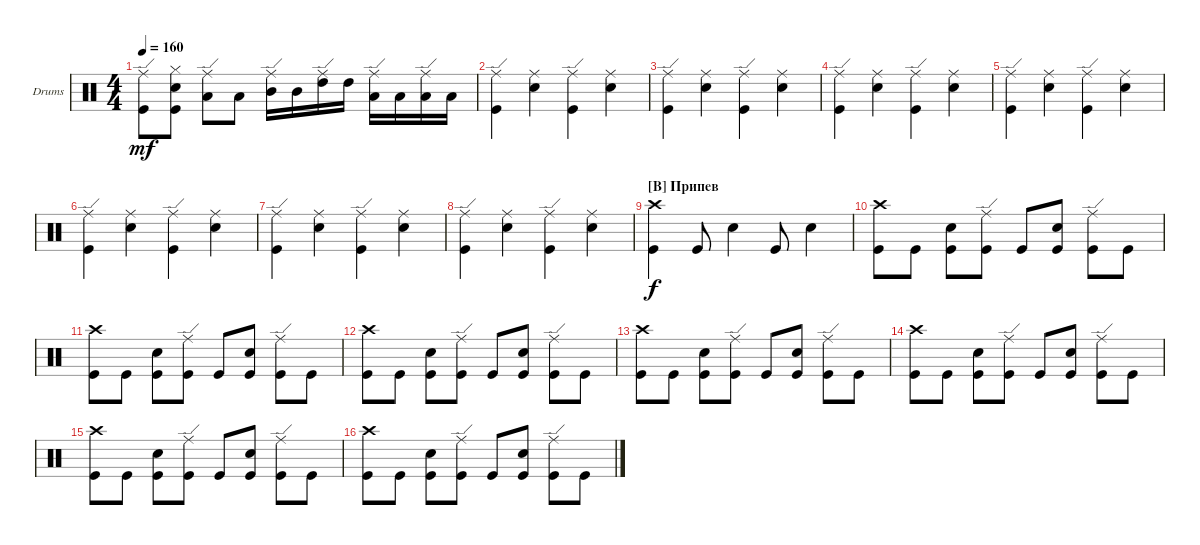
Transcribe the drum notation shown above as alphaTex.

\defaultSystemsLayout 4
\bracketExtendMode groupsimilarinstruments
\firstSystemTrackNameOrientation horizontal
\otherSystemsTrackNameOrientation horizontal
\track ("Drumkit" "Drums") {instrument percussion}
\staff {score}
\articulation defaults
\ts (4 4)
\tempo 160
\clef neutral
\ks c
("Kick (hit)" "Ride (edge)").8{dy mf} ("Kick (hit)" "Snare (hit) 2" "Hi-Hat (closed)").8 ("Low Tom (hit)" "Ride (edge)").8 "Low Tom (hit)".8 ("Mid Tom (hit)" "Ride (edge)").16 "Mid Tom (hit)".16 ("High Tom (hit)" "Ride (edge)").16 "High Tom (hit)".16 ("Low Tom (hit)" "Ride (edge)").16 "Low Tom (hit)".16 ("Low Tom (hit)" "Ride (edge)").16 "Low Tom (hit)".16 |
("Kick (hit)" "Ride (edge)").4 ("Snare (hit) 2" "Ride (middle)").4 ("Kick (hit)" "Ride (edge)").4 ("Snare (hit) 2" "Ride (middle)").4 |
("Kick (hit)" "Ride (edge)").4 ("Snare (hit) 2" "Ride (middle)").4 ("Kick (hit)" "Ride (edge)").4 ("Snare (hit) 2" "Ride (middle)").4 |
("Kick (hit)" "Ride (edge)").4 ("Snare (hit) 2" "Ride (middle)").4 ("Kick (hit)" "Ride (edge)").4 ("Snare (hit) 2" "Ride (middle)").4 |
("Kick (hit)" "Ride (edge)").4 ("Snare (hit) 2" "Ride (middle)").4 ("Kick (hit)" "Ride (edge)").4 ("Snare (hit) 2" "Ride (middle)").4 |
("Kick (hit)" "Ride (edge)").4 ("Snare (hit) 2" "Ride (middle)").4 ("Kick (hit)" "Ride (edge)").4 ("Snare (hit) 2" "Ride (middle)").4 |
("Kick (hit)" "Ride (edge)").4 ("Snare (hit) 2" "Ride (middle)").4 ("Kick (hit)" "Ride (edge)").4 ("Snare (hit) 2" "Ride (middle)").4 |
("Kick (hit)" "Ride (edge)").4 ("Snare (hit) 2" "Ride (middle)").4 ("Kick (hit)" "Ride (edge)").4 ("Snare (hit) 2" "Ride (middle)").4 |
\section ("B" "Припев")
("Kick (hit)" "Crash high (hit)").4{dy f} "Kick (hit)".8 "Snare (hit) 2".4 "Kick (hit)".8 "Snare (hit) 2".4 |
("Kick (hit)" "Crash high (hit)").8 "Kick (hit)".8 ("Kick (hit)" "Snare (hit) 2").8 ("Kick (hit)" "Ride (edge)").8 "Kick (hit)".8 ("Kick (hit)" "Snare (hit) 2").8 ("Kick (hit)" "Ride (edge)").8 "Kick (hit)".8 |
("Kick (hit)" "Crash high (hit)").8 "Kick (hit)".8 ("Kick (hit)" "Snare (hit) 2").8 ("Kick (hit)" "Ride (edge)").8 "Kick (hit)".8 ("Kick (hit)" "Snare (hit) 2").8 ("Kick (hit)" "Ride (edge)").8 "Kick (hit)".8 |
("Kick (hit)" "Crash high (hit)").8 "Kick (hit)".8 ("Kick (hit)" "Snare (hit) 2").8 ("Kick (hit)" "Ride (edge)").8 "Kick (hit)".8 ("Kick (hit)" "Snare (hit) 2").8 ("Kick (hit)" "Ride (edge)").8 "Kick (hit)".8 |
("Kick (hit)" "Crash high (hit)").8 "Kick (hit)".8 ("Kick (hit)" "Snare (hit) 2").8 ("Kick (hit)" "Ride (edge)").8 "Kick (hit)".8 ("Kick (hit)" "Snare (hit) 2").8 ("Kick (hit)" "Ride (edge)").8 "Kick (hit)".8 |
("Kick (hit)" "Crash high (hit)").8 "Kick (hit)".8 ("Kick (hit)" "Snare (hit) 2").8 ("Kick (hit)" "Ride (edge)").8 "Kick (hit)".8 ("Kick (hit)" "Snare (hit) 2").8 ("Kick (hit)" "Ride (edge)").8 "Kick (hit)".8 |
("Kick (hit)" "Crash high (hit)").8 "Kick (hit)".8 ("Kick (hit)" "Snare (hit) 2").8 ("Kick (hit)" "Ride (edge)").8 "Kick (hit)".8 ("Kick (hit)" "Snare (hit) 2").8 ("Kick (hit)" "Ride (edge)").8 "Kick (hit)".8 |
("Kick (hit)" "Crash high (hit)").8 "Kick (hit)".8 ("Kick (hit)" "Snare (hit) 2").8 ("Kick (hit)" "Ride (edge)").8 "Kick (hit)".8 ("Kick (hit)" "Snare (hit) 2").8 ("Kick (hit)" "Ride (edge)").8 "Kick (hit)".8
